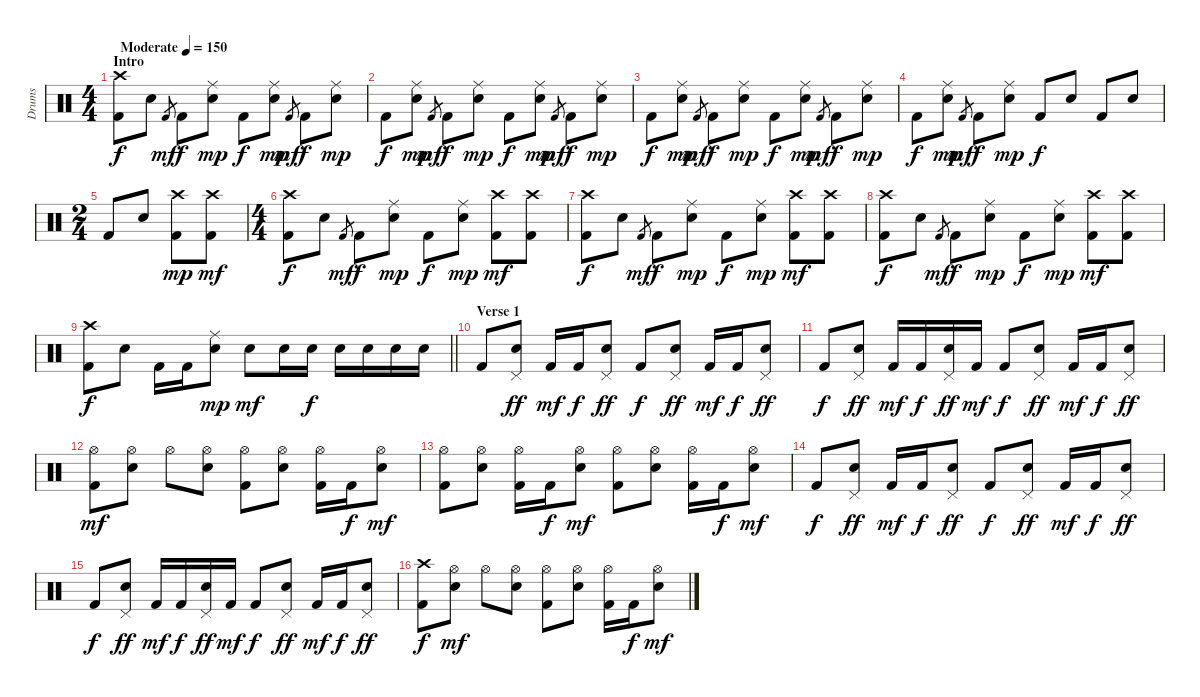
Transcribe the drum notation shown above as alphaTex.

\track ("Drums" "Drums") {instrument percussion}
\staff {score}
\articulation defaults
\ts (4 4)
\section ("" "Intro")
\tempo (150 "Moderate")
\clef neutral
\ks c
("Crash high (hit)" "Kick (hit) 2").8{dy f} "Electric Snare (hit)".8 "Kick (hit) 2".8{gr dy mf} "Kick (hit) 2".8{dy f} ("Ride (middle)" "Electric Snare (hit)").8{dy mp} "Kick (hit) 2".8{dy f} ("Ride (middle)" "Electric Snare (hit)").8{dy mp} "Kick (hit) 2".8{gr dy mf} "Kick (hit) 2".8{dy f} ("Ride (middle)" "Electric Snare (hit)").8{dy mp} |
"Kick (hit) 2".8{dy f} ("Ride (middle)" "Electric Snare (hit)").8{dy mp} "Kick (hit) 2".8{gr dy mf} "Kick (hit) 2".8{dy f} ("Ride (middle)" "Electric Snare (hit)").8{dy mp} "Kick (hit) 2".8{dy f} ("Ride (middle)" "Electric Snare (hit)").8{dy mp} "Kick (hit) 2".8{gr dy mf} "Kick (hit) 2".8{dy f} ("Ride (middle)" "Electric Snare (hit)").8{dy mp} |
"Kick (hit) 2".8{dy f} ("Ride (middle)" "Electric Snare (hit)").8{dy mp} "Kick (hit) 2".8{gr dy mf} "Kick (hit) 2".8{dy f} ("Ride (middle)" "Electric Snare (hit)").8{dy mp} "Kick (hit) 2".8{dy f} ("Ride (middle)" "Electric Snare (hit)").8{dy mp} "Kick (hit) 2".8{gr dy mf} "Kick (hit) 2".8{dy f} ("Ride (middle)" "Electric Snare (hit)").8{dy mp} |
"Kick (hit) 2".8{dy f} ("Ride (middle)" "Electric Snare (hit)").8{dy mp} "Kick (hit) 2".8{gr dy mf} "Kick (hit) 2".8{dy f} ("Ride (middle)" "Electric Snare (hit)").8{dy mp} "Kick (hit) 2".8{dy f} "Electric Snare (hit)".8 "Kick (hit) 2".8 "Electric Snare (hit)".8 |
\ts (2 4)
"Kick (hit) 2".8 "Electric Snare (hit)".8 ("Crash high (hit)" "Kick (hit) 2").8{dy mp} ("Crash high (hit)" "Kick (hit) 2").8{dy mf} |
\ts (4 4)
("Crash high (hit)" "Kick (hit) 2").8{dy f} "Electric Snare (hit)".8 "Kick (hit) 2".8{gr dy mf} "Kick (hit) 2".8{dy f} ("Ride (middle)" "Electric Snare (hit)").8{dy mp} "Kick (hit) 2".8{dy f} ("Ride (middle)" "Electric Snare (hit)").8{dy mp} ("Crash high (hit)" "Kick (hit) 2").8{dy mf} ("Crash high (hit)" "Kick (hit) 2").8 |
("Crash high (hit)" "Kick (hit) 2").8{dy f} "Electric Snare (hit)".8 "Kick (hit) 2".8{gr dy mf} "Kick (hit) 2".8{dy f} ("Ride (middle)" "Electric Snare (hit)").8{dy mp} "Kick (hit) 2".8{dy f} ("Ride (middle)" "Electric Snare (hit)").8{dy mp} ("Crash high (hit)" "Kick (hit) 2").8{dy mf} ("Crash high (hit)" "Kick (hit) 2").8 |
("Crash high (hit)" "Kick (hit) 2").8{dy f} "Electric Snare (hit)".8 "Kick (hit) 2".8{gr dy mf} "Kick (hit) 2".8{dy f} ("Ride (middle)" "Electric Snare (hit)").8{dy mp} "Kick (hit) 2".8{dy f} ("Ride (middle)" "Electric Snare (hit)").8{dy mp} ("Crash high (hit)" "Kick (hit) 2").8{dy mf} ("Crash high (hit)" "Kick (hit) 2").8 |
\barLineRight lightlight
("Crash high (hit)" "Kick (hit) 2").8{dy f} "Electric Snare (hit)".8 "Kick (hit) 2".16 "Kick (hit) 2".16 ("Ride (middle)" "Electric Snare (hit)").8{dy mp} "Electric Snare (hit)".8{dy mf} "Electric Snare (hit)".16 "Electric Snare (hit)".16{dy f} "Electric Snare (hit)".16 "Electric Snare (hit)".16 "Electric Snare (hit)".16 "Electric Snare (hit)".16 |
\section ("" "Verse 1")
"Kick (hit) 2".8 ("Pedal Hi-Hat (hit)" "Electric Snare (hit)").8{dy ff} "Kick (hit) 2".16{dy mf} "Kick (hit) 2".16{dy f} ("Pedal Hi-Hat (hit)" "Electric Snare (hit)").8{dy ff} "Kick (hit) 2".8{dy f} ("Pedal Hi-Hat (hit)" "Electric Snare (hit)").8{dy ff} "Kick (hit) 2".16{dy mf} "Kick (hit) 2".16{dy f} ("Pedal Hi-Hat (hit)" "Electric Snare (hit)").8{dy ff} |
"Kick (hit) 2".8{dy f} ("Pedal Hi-Hat (hit)" "Electric Snare (hit)").8{dy ff} "Kick (hit) 2".16{dy mf} "Kick (hit) 2".16{dy f} ("Pedal Hi-Hat (hit)" "Electric Snare (hit)").16{dy ff} "Kick (hit) 2".16{dy mf} "Kick (hit) 2".8{dy f} ("Pedal Hi-Hat (hit)" "Electric Snare (hit)").8{dy ff} "Kick (hit) 2".16{dy mf} "Kick (hit) 2".16{dy f} ("Pedal Hi-Hat (hit)" "Electric Snare (hit)").8{dy ff} |
("Hi-Hat (open)" "Kick (hit) 2").8{dy mf} ("Hi-Hat (open)" "Electric Snare (hit)").8 "Hi-Hat (open)".8 ("Hi-Hat (open)" "Electric Snare (hit)").8 ("Hi-Hat (open)" "Kick (hit) 2").8 ("Hi-Hat (open)" "Electric Snare (hit)").8 ("Hi-Hat (open)" "Kick (hit) 2").16 "Kick (hit) 2".16{dy f} ("Hi-Hat (open)" "Electric Snare (hit)").8{dy mf} |
("Hi-Hat (open)" "Kick (hit) 2").8 ("Hi-Hat (open)" "Electric Snare (hit)").8 ("Hi-Hat (open)" "Kick (hit) 2").16 "Kick (hit) 2".16{dy f} ("Hi-Hat (open)" "Electric Snare (hit)").8{dy mf} ("Hi-Hat (open)" "Kick (hit) 2").8 ("Hi-Hat (open)" "Electric Snare (hit)").8 ("Hi-Hat (open)" "Kick (hit) 2").16 "Kick (hit) 2".16{dy f} ("Hi-Hat (open)" "Electric Snare (hit)").8{dy mf} |
"Kick (hit) 2".8{dy f} ("Pedal Hi-Hat (hit)" "Electric Snare (hit)").8{dy ff} "Kick (hit) 2".16{dy mf} "Kick (hit) 2".16{dy f} ("Pedal Hi-Hat (hit)" "Electric Snare (hit)").8{dy ff} "Kick (hit) 2".8{dy f} ("Pedal Hi-Hat (hit)" "Electric Snare (hit)").8{dy ff} "Kick (hit) 2".16{dy mf} "Kick (hit) 2".16{dy f} ("Pedal Hi-Hat (hit)" "Electric Snare (hit)").8{dy ff} |
"Kick (hit) 2".8{dy f} ("Pedal Hi-Hat (hit)" "Electric Snare (hit)").8{dy ff} "Kick (hit) 2".16{dy mf} "Kick (hit) 2".16{dy f} ("Pedal Hi-Hat (hit)" "Electric Snare (hit)").16{dy ff} "Kick (hit) 2".16{dy mf} "Kick (hit) 2".8{dy f} ("Pedal Hi-Hat (hit)" "Electric Snare (hit)").8{dy ff} "Kick (hit) 2".16{dy mf} "Kick (hit) 2".16{dy f} ("Pedal Hi-Hat (hit)" "Electric Snare (hit)").8{dy ff} |
("Crash high (hit)" "Kick (hit) 2").8{dy f} ("Hi-Hat (open)" "Electric Snare (hit)").8{dy mf} "Hi-Hat (open)".8 ("Hi-Hat (open)" "Electric Snare (hit)").8 ("Hi-Hat (open)" "Kick (hit) 2").8 ("Hi-Hat (open)" "Electric Snare (hit)").8 ("Hi-Hat (open)" "Kick (hit) 2").16 "Kick (hit) 2".16{dy f} ("Hi-Hat (open)" "Electric Snare (hit)").8{dy mf}
